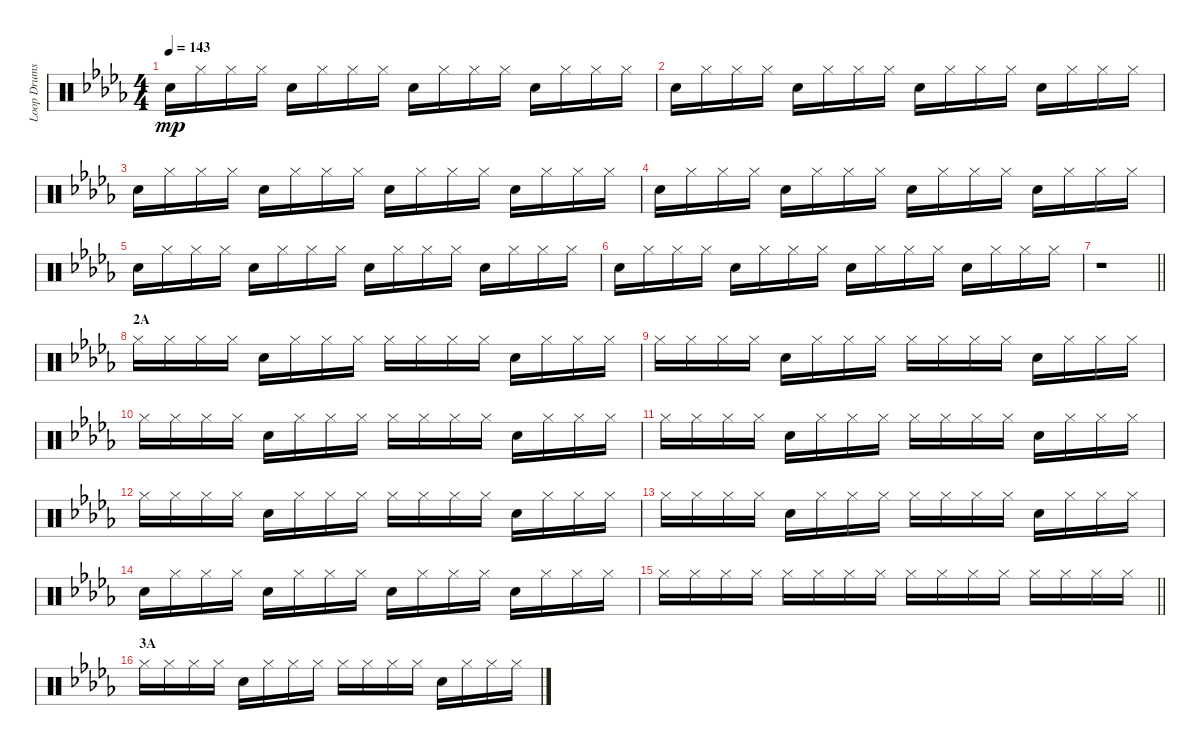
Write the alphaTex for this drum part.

\track ("Loop Drums" "Loop Drums") {instrument percussion}
\staff {score}
\articulation defaults
\ts (4 4)
\tempo 143
\clef neutral
\ks db "Electric Snare (hit)".16{dy mp} "Hi-Hat (closed)".16 "Hi-Hat (closed)".16 "Hi-Hat (closed)".16 "Electric Snare (hit)".16 "Hi-Hat (closed)".16 "Hi-Hat (closed)".16 "Hi-Hat (closed)".16 "Electric Snare (hit)".16 "Hi-Hat (closed)".16 "Hi-Hat (closed)".16 "Hi-Hat (closed)".16 "Electric Snare (hit)".16 "Hi-Hat (closed)".16 "Hi-Hat (closed)".16 "Hi-Hat (closed)".16
|
"Electric Snare (hit)".16 "Hi-Hat (closed)".16 "Hi-Hat (closed)".16 "Hi-Hat (closed)".16 "Electric Snare (hit)".16 "Hi-Hat (closed)".16 "Hi-Hat (closed)".16 "Hi-Hat (closed)".16 "Electric Snare (hit)".16 "Hi-Hat (closed)".16 "Hi-Hat (closed)".16 "Hi-Hat (closed)".16 "Electric Snare (hit)".16 "Hi-Hat (closed)".16 "Hi-Hat (closed)".16 "Hi-Hat (closed)".16 |
"Electric Snare (hit)".16 "Hi-Hat (closed)".16 "Hi-Hat (closed)".16 "Hi-Hat (closed)".16 "Electric Snare (hit)".16 "Hi-Hat (closed)".16 "Hi-Hat (closed)".16 "Hi-Hat (closed)".16 "Electric Snare (hit)".16 "Hi-Hat (closed)".16 "Hi-Hat (closed)".16 "Hi-Hat (closed)".16 "Electric Snare (hit)".16 "Hi-Hat (closed)".16 "Hi-Hat (closed)".16 "Hi-Hat (closed)".16 |
"Electric Snare (hit)".16 "Hi-Hat (closed)".16 "Hi-Hat (closed)".16 "Hi-Hat (closed)".16 "Electric Snare (hit)".16 "Hi-Hat (closed)".16 "Hi-Hat (closed)".16 "Hi-Hat (closed)".16 "Electric Snare (hit)".16 "Hi-Hat (closed)".16 "Hi-Hat (closed)".16 "Hi-Hat (closed)".16 "Electric Snare (hit)".16 "Hi-Hat (closed)".16 "Hi-Hat (closed)".16 "Hi-Hat (closed)".16 |
"Electric Snare (hit)".16 "Hi-Hat (closed)".16 "Hi-Hat (closed)".16 "Hi-Hat (closed)".16 "Electric Snare (hit)".16 "Hi-Hat (closed)".16 "Hi-Hat (closed)".16 "Hi-Hat (closed)".16 "Electric Snare (hit)".16 "Hi-Hat (closed)".16 "Hi-Hat (closed)".16 "Hi-Hat (closed)".16 "Electric Snare (hit)".16 "Hi-Hat (closed)".16 "Hi-Hat (closed)".16 "Hi-Hat (closed)".16 |
"Electric Snare (hit)".16 "Hi-Hat (closed)".16 "Hi-Hat (closed)".16 "Hi-Hat (closed)".16 "Electric Snare (hit)".16 "Hi-Hat (closed)".16 "Hi-Hat (closed)".16 "Hi-Hat (closed)".16 "Electric Snare (hit)".16 "Hi-Hat (closed)".16 "Hi-Hat (closed)".16 "Hi-Hat (closed)".16 "Electric Snare (hit)".16 "Hi-Hat (closed)".16 "Hi-Hat (closed)".16 "Hi-Hat (closed)".16 |
\barLineRight lightlight
r.1 |
\section ("" "2A")
"Hi-Hat (closed)".16 "Hi-Hat (closed)".16 "Hi-Hat (closed)".16 "Hi-Hat (closed)".16 "Electric Snare (hit)".16 "Hi-Hat (closed)".16 "Hi-Hat (closed)".16 "Hi-Hat (closed)".16 "Hi-Hat (closed)".16 "Hi-Hat (closed)".16 "Hi-Hat (closed)".16 "Hi-Hat (closed)".16 "Electric Snare (hit)".16 "Hi-Hat (closed)".16 "Hi-Hat (closed)".16 "Hi-Hat (closed)".16 |
"Hi-Hat (closed)".16 "Hi-Hat (closed)".16 "Hi-Hat (closed)".16 "Hi-Hat (closed)".16 "Electric Snare (hit)".16 "Hi-Hat (closed)".16 "Hi-Hat (closed)".16 "Hi-Hat (closed)".16 "Hi-Hat (closed)".16 "Hi-Hat (closed)".16 "Hi-Hat (closed)".16 "Hi-Hat (closed)".16 "Electric Snare (hit)".16 "Hi-Hat (closed)".16 "Hi-Hat (closed)".16 "Hi-Hat (closed)".16 |
"Hi-Hat (closed)".16 "Hi-Hat (closed)".16 "Hi-Hat (closed)".16 "Hi-Hat (closed)".16 "Electric Snare (hit)".16 "Hi-Hat (closed)".16 "Hi-Hat (closed)".16 "Hi-Hat (closed)".16 "Hi-Hat (closed)".16 "Hi-Hat (closed)".16 "Hi-Hat (closed)".16 "Hi-Hat (closed)".16 "Electric Snare (hit)".16 "Hi-Hat (closed)".16 "Hi-Hat (closed)".16 "Hi-Hat (closed)".16 |
"Hi-Hat (closed)".16 "Hi-Hat (closed)".16 "Hi-Hat (closed)".16 "Hi-Hat (closed)".16 "Electric Snare (hit)".16 "Hi-Hat (closed)".16 "Hi-Hat (closed)".16 "Hi-Hat (closed)".16 "Hi-Hat (closed)".16 "Hi-Hat (closed)".16 "Hi-Hat (closed)".16 "Hi-Hat (closed)".16 "Electric Snare (hit)".16 "Hi-Hat (closed)".16 "Hi-Hat (closed)".16 "Hi-Hat (closed)".16 |
"Hi-Hat (closed)".16 "Hi-Hat (closed)".16 "Hi-Hat (closed)".16 "Hi-Hat (closed)".16 "Electric Snare (hit)".16 "Hi-Hat (closed)".16 "Hi-Hat (closed)".16 "Hi-Hat (closed)".16 "Hi-Hat (closed)".16 "Hi-Hat (closed)".16 "Hi-Hat (closed)".16 "Hi-Hat (closed)".16 "Electric Snare (hit)".16 "Hi-Hat (closed)".16 "Hi-Hat (closed)".16 "Hi-Hat (closed)".16 |
"Hi-Hat (closed)".16 "Hi-Hat (closed)".16 "Hi-Hat (closed)".16 "Hi-Hat (closed)".16 "Electric Snare (hit)".16 "Hi-Hat (closed)".16 "Hi-Hat (closed)".16 "Hi-Hat (closed)".16 "Hi-Hat (closed)".16 "Hi-Hat (closed)".16 "Hi-Hat (closed)".16 "Hi-Hat (closed)".16 "Electric Snare (hit)".16 "Hi-Hat (closed)".16 "Hi-Hat (closed)".16 "Hi-Hat (closed)".16 |
"Electric Snare (hit)".16 "Hi-Hat (closed)".16 "Hi-Hat (closed)".16 "Hi-Hat (closed)".16 "Electric Snare (hit)".16 "Hi-Hat (closed)".16 "Hi-Hat (closed)".16 "Hi-Hat (closed)".16 "Electric Snare (hit)".16 "Hi-Hat (closed)".16 "Hi-Hat (closed)".16 "Hi-Hat (closed)".16 "Electric Snare (hit)".16 "Hi-Hat (closed)".16 "Hi-Hat (closed)".16 "Hi-Hat (closed)".16 |
\barLineRight lightlight "Hi-Hat (closed)".16 "Hi-Hat (closed)".16 "Hi-Hat (closed)".16 "Hi-Hat (closed)".16 "Hi-Hat (closed)".16 "Hi-Hat (closed)".16 "Hi-Hat (closed)".16 "Hi-Hat (closed)".16 "Hi-Hat (closed)".16 "Hi-Hat (closed)".16 "Hi-Hat (closed)".16 "Hi-Hat (closed)".16 "Hi-Hat (closed)".16 "Hi-Hat (closed)".16 "Hi-Hat (closed)".16 "Hi-Hat (closed)".16
|
\section ("" "3A")
"Hi-Hat (closed)".16 "Hi-Hat (closed)".16 "Hi-Hat (closed)".16 "Hi-Hat (closed)".16 "Electric Snare (hit)".16 "Hi-Hat (closed)".16 "Hi-Hat (closed)".16 "Hi-Hat (closed)".16 "Hi-Hat (closed)".16 "Hi-Hat (closed)".16 "Hi-Hat (closed)".16 "Hi-Hat (closed)".16 "Electric Snare (hit)".16 "Hi-Hat (closed)".16 "Hi-Hat (closed)".16 "Hi-Hat (closed)".16
